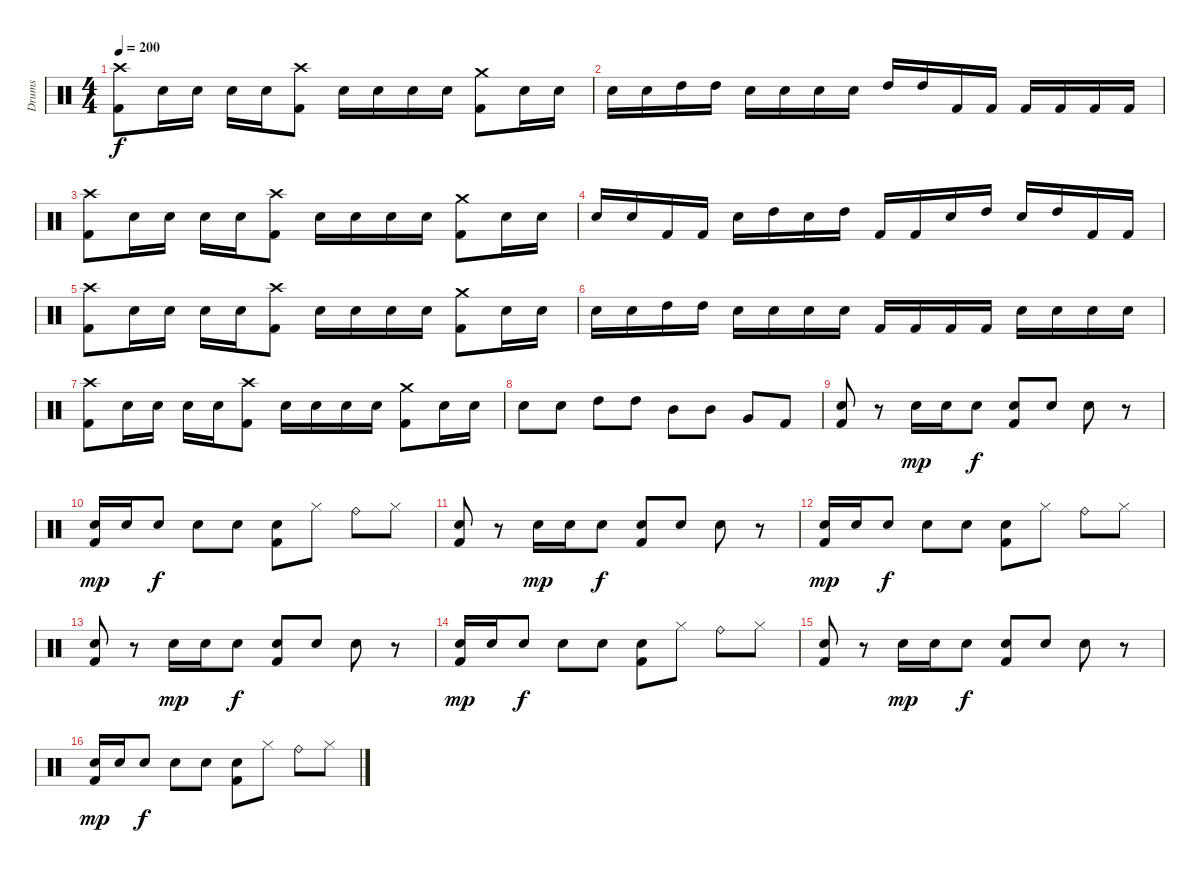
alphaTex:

\track ("Drums" "Drums") {instrument percussion}
\staff {score}
\articulation defaults
\ts (4 4)
\tempo 200
\clef neutral
\ks c
("Kick (hit) 2" "Crash high (hit)").8{dy f} "Electric Snare (hit)".16 "Electric Snare (hit)".16 "Electric Snare (hit)".16 "Electric Snare (hit)".16 ("Kick (hit) 2" "Crash high (hit)").8 "Electric Snare (hit)".16 "Electric Snare (hit)".16 "Electric Snare (hit)".16 "Electric Snare (hit)".16 ("Kick (hit) 2" "Crash medium (hit)").8 "Electric Snare (hit)".16 "Electric Snare (hit)".16 |
"Electric Snare (hit)".16 "Electric Snare (hit)".16 "High Tom (hit)".16 "High Tom (hit)".16 "Electric Snare (hit)".16 "Electric Snare (hit)".16 "Electric Snare (hit)".16 "Electric Snare (hit)".16 "High Tom (hit)".16 "High Tom (hit)".16 "Kick (hit) 2".16 "Kick (hit) 2".16 "Kick (hit) 2".16 "Kick (hit) 2".16 "Kick (hit) 2".16 "Kick (hit) 2".16 |
("Kick (hit) 2" "Crash high (hit)").8 "Electric Snare (hit)".16 "Electric Snare (hit)".16 "Electric Snare (hit)".16 "Electric Snare (hit)".16 ("Kick (hit) 2" "Crash high (hit)").8 "Electric Snare (hit)".16 "Electric Snare (hit)".16 "Electric Snare (hit)".16 "Electric Snare (hit)".16 ("Kick (hit) 2" "Crash medium (hit)").8 "Electric Snare (hit)".16 "Electric Snare (hit)".16 |
"Electric Snare (hit)".16 "Electric Snare (hit)".16 "Kick (hit) 2".16 "Kick (hit) 2".16 "Electric Snare (hit)".16 "High Tom (hit)".16 "Electric Snare (hit)".16 "High Tom (hit)".16 "Kick (hit) 2".16 "Kick (hit) 2".16 "Electric Snare (hit)".16 "High Tom (hit)".16 "Electric Snare (hit)".16 "High Tom (hit)".16 "Kick (hit) 2".16 "Kick (hit) 2".16 |
("Kick (hit) 2" "Crash high (hit)").8 "Electric Snare (hit)".16 "Electric Snare (hit)".16 "Electric Snare (hit)".16 "Electric Snare (hit)".16 ("Kick (hit) 2" "Crash high (hit)").8 "Electric Snare (hit)".16 "Electric Snare (hit)".16 "Electric Snare (hit)".16 "Electric Snare (hit)".16 ("Kick (hit) 2" "Crash medium (hit)").8 "Electric Snare (hit)".16 "Electric Snare (hit)".16 |
"Electric Snare (hit)".16 "Electric Snare (hit)".16 "High Tom (hit)".16 "High Tom (hit)".16 "Electric Snare (hit)".16 "Electric Snare (hit)".16 "Electric Snare (hit)".16 "Electric Snare (hit)".16 "Kick (hit) 2".16 "Kick (hit) 2".16 "Kick (hit) 2".16 "Kick (hit) 2".16 "Electric Snare (hit)".16 "Electric Snare (hit)".16 "Electric Snare (hit)".16 "Electric Snare (hit)".16 |
("Kick (hit) 2" "Crash high (hit)").8 "Electric Snare (hit)".16 "Electric Snare (hit)".16 "Electric Snare (hit)".16 "Electric Snare (hit)".16 ("Kick (hit) 2" "Crash high (hit)").8 "Electric Snare (hit)".16 "Electric Snare (hit)".16 "Electric Snare (hit)".16 "Electric Snare (hit)".16 ("Kick (hit) 2" "Crash medium (hit)").8 "Electric Snare (hit)".16 "Electric Snare (hit)".16 |
"Electric Snare (hit)".8 "Electric Snare (hit)".8 "High Tom (hit)".8 "High Tom (hit)".8 "Mid Tom (hit)".8 "Mid Tom (hit)".8 "Very Low Tom (hit)".8 "Kick (hit) 2".8 |
("Kick (hit) 2" "Electric Snare (hit)").8 r.8 "Electric Snare (hit)".16{dy mp} "Electric Snare (hit)".16 "Electric Snare (hit)".8{dy f} ("Kick (hit) 2" "Electric Snare (hit)").8 "Electric Snare (hit)".8 "Electric Snare (hit)".8 r.8 |
("Kick (hit) 2" "Electric Snare (hit)").16{dy mp} "Electric Snare (hit)".16 "Electric Snare (hit)".8{dy f} "Electric Snare (hit)".8 "Electric Snare (hit)".8 ("Kick (hit) 2" "Electric Snare (hit)").8 "Hi-Hat (closed)".8 "Ride (bell)".8 "Hi-Hat (closed)".8 |
("Kick (hit) 2" "Electric Snare (hit)").8 r.8 "Electric Snare (hit)".16{dy mp} "Electric Snare (hit)".16 "Electric Snare (hit)".8{dy f} ("Kick (hit) 2" "Electric Snare (hit)").8 "Electric Snare (hit)".8 "Electric Snare (hit)".8 r.8 |
("Kick (hit) 2" "Electric Snare (hit)").16{dy mp} "Electric Snare (hit)".16 "Electric Snare (hit)".8{dy f} "Electric Snare (hit)".8 "Electric Snare (hit)".8 ("Kick (hit) 2" "Electric Snare (hit)").8 "Hi-Hat (closed)".8 "Ride (bell)".8 "Hi-Hat (closed)".8 |
("Kick (hit) 2" "Electric Snare (hit)").8 r.8 "Electric Snare (hit)".16{dy mp} "Electric Snare (hit)".16 "Electric Snare (hit)".8{dy f} ("Kick (hit) 2" "Electric Snare (hit)").8 "Electric Snare (hit)".8 "Electric Snare (hit)".8 r.8 |
("Kick (hit) 2" "Electric Snare (hit)").16{dy mp} "Electric Snare (hit)".16 "Electric Snare (hit)".8{dy f} "Electric Snare (hit)".8 "Electric Snare (hit)".8 ("Kick (hit) 2" "Electric Snare (hit)").8 "Hi-Hat (closed)".8 "Ride (bell)".8 "Hi-Hat (closed)".8 |
("Kick (hit) 2" "Electric Snare (hit)").8 r.8 "Electric Snare (hit)".16{dy mp} "Electric Snare (hit)".16 "Electric Snare (hit)".8{dy f} ("Kick (hit) 2" "Electric Snare (hit)").8 "Electric Snare (hit)".8 "Electric Snare (hit)".8 r.8 |
("Kick (hit) 2" "Electric Snare (hit)").16{dy mp} "Electric Snare (hit)".16 "Electric Snare (hit)".8{dy f} "Electric Snare (hit)".8 "Electric Snare (hit)".8 ("Kick (hit) 2" "Electric Snare (hit)").8 "Hi-Hat (closed)".8 "Ride (bell)".8 "Hi-Hat (closed)".8
